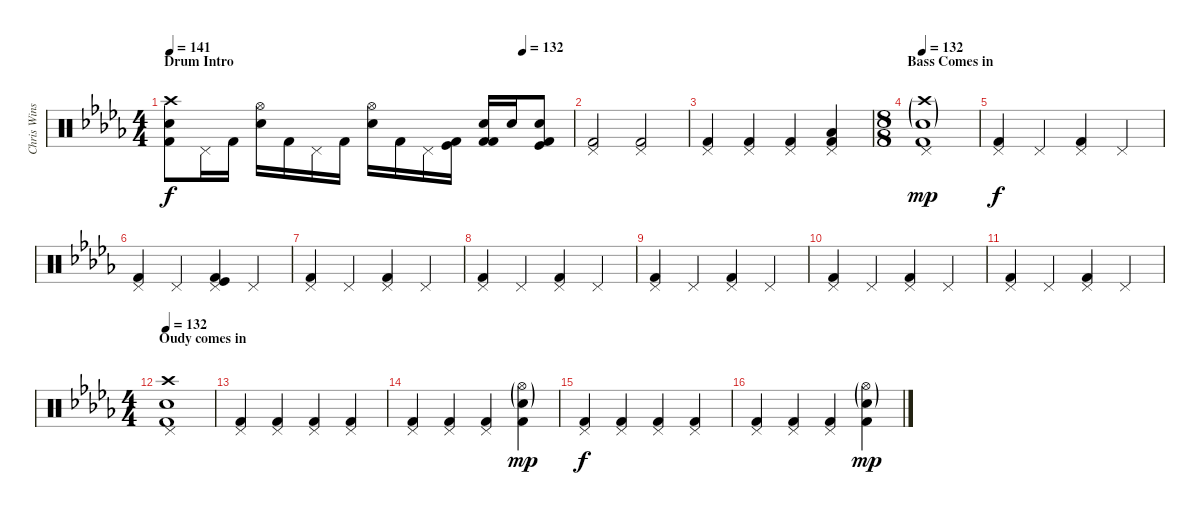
\track ("Chris Winship (Drums)" "Chris Wins") {instrument percussion}
\staff {score}
\articulation defaults
\ts (4 4)
\section ("" "Drum Intro")
\tempo 141
\tempo 100
\tempo (132 0.875)
\tempo 141
\clef neutral
\ks db
("Electric Snare (hit)" "Kick (hit) 2" "Crash high (hit)").8{dy f} "Pedal Hi-Hat (hit)".16 "Kick (hit) 2".16 ("Electric Snare (hit)" "Hi-Hat (open)").16 "Kick (hit) 2".16 "Pedal Hi-Hat (hit)".16 "Kick (hit) 2".16 ("Electric Snare (hit)" "Hi-Hat (open)").16 "Kick (hit) 2".16 "Pedal Hi-Hat (hit)".16 ("Kick (hit) 2" "Kick (hit)").16 ("Electric Snare (hit)" "Kick (hit) 2" "Kick (hit) 2").16 "Electric Snare (hit)".16 ("Electric Snare (hit)" "Kick (hit)" "Kick (hit) 2").8 |
("Pedal Hi-Hat (hit)" "Kick (hit) 2").2 ("Pedal Hi-Hat (hit)" "Kick (hit) 2").2 |
("Pedal Hi-Hat (hit)" "Kick (hit) 2").4 ("Pedal Hi-Hat (hit)" "Kick (hit) 2").4 ("Pedal Hi-Hat (hit)" "Kick (hit) 2").4 ("Low Floor Tom (hit)" "Kick (hit) 2" "Pedal Hi-Hat (hit)").4 |
\ts (8 8)
\section ("" "Bass Comes in")
\tempo 132
("Crash high (hit)"{g} "Kick (hit) 2" "Pedal Hi-Hat (hit)" "Electric Snare (hit)"{g}).1{dy mp} |
("Kick (hit) 2" "Pedal Hi-Hat (hit)").4{dy f} "Pedal Hi-Hat (hit)".4 ("Kick (hit) 2" "Pedal Hi-Hat (hit)").4 "Pedal Hi-Hat (hit)".4 |
("Kick (hit) 2" "Pedal Hi-Hat (hit)").4 "Pedal Hi-Hat (hit)".4 ("Kick (hit) 2" "Kick (hit)" "Pedal Hi-Hat (hit)").4 "Pedal Hi-Hat (hit)".4 |
("Kick (hit) 2" "Pedal Hi-Hat (hit)").4 "Pedal Hi-Hat (hit)".4 ("Kick (hit) 2" "Pedal Hi-Hat (hit)").4 "Pedal Hi-Hat (hit)".4 |
("Kick (hit) 2" "Pedal Hi-Hat (hit)").4 "Pedal Hi-Hat (hit)".4 ("Kick (hit) 2" "Pedal Hi-Hat (hit)").4 "Pedal Hi-Hat (hit)".4 |
("Kick (hit) 2" "Pedal Hi-Hat (hit)").4 "Pedal Hi-Hat (hit)".4 ("Kick (hit) 2" "Pedal Hi-Hat (hit)").4 "Pedal Hi-Hat (hit)".4 |
("Kick (hit) 2" "Pedal Hi-Hat (hit)").4 "Pedal Hi-Hat (hit)".4 ("Kick (hit) 2" "Pedal Hi-Hat (hit)").4 "Pedal Hi-Hat (hit)".4 |
("Kick (hit) 2" "Pedal Hi-Hat (hit)").4 "Pedal Hi-Hat (hit)".4 ("Kick (hit) 2" "Pedal Hi-Hat (hit)").4 "Pedal Hi-Hat (hit)".4 |
\ts (4 4)
\section ("" "Oudy comes in")
\tempo 141
\tempo 132
("Crash high (hit)" "Pedal Hi-Hat (hit)" "Kick (hit) 2" "Electric Snare (hit)").1 |
("Kick (hit) 2" "Pedal Hi-Hat (hit)").4 ("Kick (hit) 2" "Pedal Hi-Hat (hit)").4 ("Kick (hit) 2" "Pedal Hi-Hat (hit)").4 ("Kick (hit) 2" "Pedal Hi-Hat (hit)").4 |
("Kick (hit) 2" "Pedal Hi-Hat (hit)").4 ("Kick (hit) 2" "Pedal Hi-Hat (hit)").4 ("Kick (hit) 2" "Pedal Hi-Hat (hit)").4 ("Kick (hit) 2" "Hi-Hat (open)"{g} "Electric Snare (hit)"{g}).4{dy mp} |
("Kick (hit) 2" "Pedal Hi-Hat (hit)").4{dy f} ("Kick (hit) 2" "Pedal Hi-Hat (hit)").4 ("Kick (hit) 2" "Pedal Hi-Hat (hit)").4 ("Kick (hit) 2" "Pedal Hi-Hat (hit)").4 |
("Kick (hit) 2" "Pedal Hi-Hat (hit)").4 ("Kick (hit) 2" "Pedal Hi-Hat (hit)").4 ("Kick (hit) 2" "Pedal Hi-Hat (hit)").4 ("Kick (hit) 2" "Hi-Hat (open)"{g} "Electric Snare (hit)"{g}).4{dy mp}
